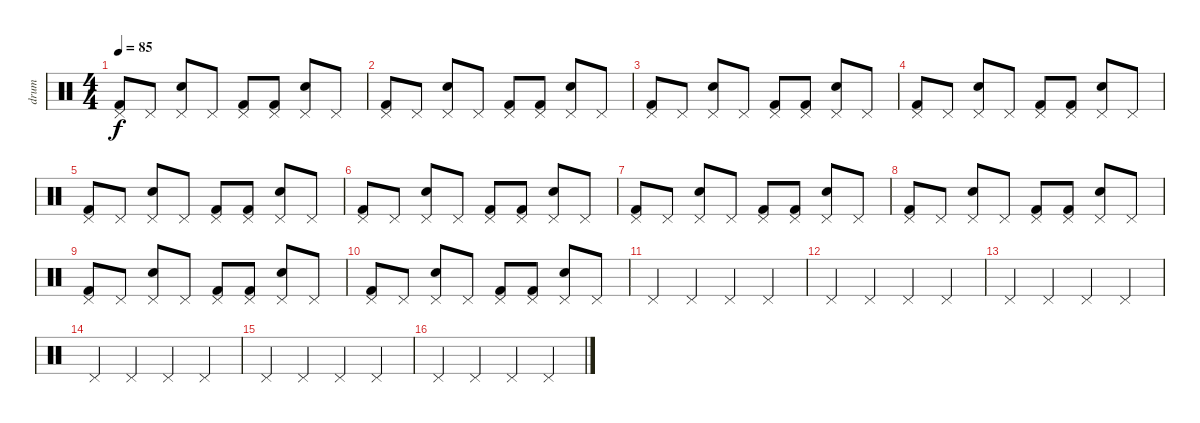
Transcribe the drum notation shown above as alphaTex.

\track ("drum" "drum") {instrument percussion}
\staff {score}
\articulation defaults
\ts (4 4)
\tempo 85
\clef neutral
\ks c
("Pedal Hi-Hat (hit)" "Kick (hit) 2").8{dy f} "Pedal Hi-Hat (hit)".8 ("Pedal Hi-Hat (hit)" "Snare (hit) 2").8 "Pedal Hi-Hat (hit)".8 ("Pedal Hi-Hat (hit)" "Kick (hit) 2").8 ("Pedal Hi-Hat (hit)" "Kick (hit) 2").8 ("Pedal Hi-Hat (hit)" "Snare (hit) 2").8 "Pedal Hi-Hat (hit)".8 |
("Pedal Hi-Hat (hit)" "Kick (hit) 2").8 "Pedal Hi-Hat (hit)".8 ("Pedal Hi-Hat (hit)" "Snare (hit) 2").8 "Pedal Hi-Hat (hit)".8 ("Pedal Hi-Hat (hit)" "Kick (hit) 2").8 ("Pedal Hi-Hat (hit)" "Kick (hit) 2").8 ("Pedal Hi-Hat (hit)" "Snare (hit) 2").8 "Pedal Hi-Hat (hit)".8 |
("Pedal Hi-Hat (hit)" "Kick (hit) 2").8 "Pedal Hi-Hat (hit)".8 ("Pedal Hi-Hat (hit)" "Snare (hit) 2").8 "Pedal Hi-Hat (hit)".8 ("Pedal Hi-Hat (hit)" "Kick (hit) 2").8 ("Pedal Hi-Hat (hit)" "Kick (hit) 2").8 ("Pedal Hi-Hat (hit)" "Snare (hit) 2").8 "Pedal Hi-Hat (hit)".8 |
("Pedal Hi-Hat (hit)" "Kick (hit) 2").8 "Pedal Hi-Hat (hit)".8 ("Pedal Hi-Hat (hit)" "Snare (hit) 2").8 "Pedal Hi-Hat (hit)".8 ("Pedal Hi-Hat (hit)" "Kick (hit) 2").8 ("Pedal Hi-Hat (hit)" "Kick (hit) 2").8 ("Pedal Hi-Hat (hit)" "Snare (hit) 2").8 "Pedal Hi-Hat (hit)".8 |
("Pedal Hi-Hat (hit)" "Kick (hit) 2").8 "Pedal Hi-Hat (hit)".8 ("Pedal Hi-Hat (hit)" "Snare (hit) 2").8 "Pedal Hi-Hat (hit)".8 ("Pedal Hi-Hat (hit)" "Kick (hit) 2").8 ("Pedal Hi-Hat (hit)" "Kick (hit) 2").8 ("Pedal Hi-Hat (hit)" "Snare (hit) 2").8 "Pedal Hi-Hat (hit)".8 |
("Pedal Hi-Hat (hit)" "Kick (hit) 2").8 "Pedal Hi-Hat (hit)".8 ("Pedal Hi-Hat (hit)" "Snare (hit) 2").8 "Pedal Hi-Hat (hit)".8 ("Pedal Hi-Hat (hit)" "Kick (hit) 2").8 ("Pedal Hi-Hat (hit)" "Kick (hit) 2").8 ("Pedal Hi-Hat (hit)" "Snare (hit) 2").8 "Pedal Hi-Hat (hit)".8 |
("Pedal Hi-Hat (hit)" "Kick (hit) 2").8 "Pedal Hi-Hat (hit)".8 ("Pedal Hi-Hat (hit)" "Snare (hit) 2").8 "Pedal Hi-Hat (hit)".8 ("Pedal Hi-Hat (hit)" "Kick (hit) 2").8 ("Pedal Hi-Hat (hit)" "Kick (hit) 2").8 ("Pedal Hi-Hat (hit)" "Snare (hit) 2").8 "Pedal Hi-Hat (hit)".8 |
("Pedal Hi-Hat (hit)" "Kick (hit) 2").8 "Pedal Hi-Hat (hit)".8 ("Pedal Hi-Hat (hit)" "Snare (hit) 2").8 "Pedal Hi-Hat (hit)".8 ("Pedal Hi-Hat (hit)" "Kick (hit) 2").8 ("Pedal Hi-Hat (hit)" "Kick (hit) 2").8 ("Pedal Hi-Hat (hit)" "Snare (hit) 2").8 "Pedal Hi-Hat (hit)".8 |
("Pedal Hi-Hat (hit)" "Kick (hit) 2").8 "Pedal Hi-Hat (hit)".8 ("Pedal Hi-Hat (hit)" "Snare (hit) 2").8 "Pedal Hi-Hat (hit)".8 ("Pedal Hi-Hat (hit)" "Kick (hit) 2").8 ("Pedal Hi-Hat (hit)" "Kick (hit) 2").8 ("Pedal Hi-Hat (hit)" "Snare (hit) 2").8 "Pedal Hi-Hat (hit)".8 |
("Pedal Hi-Hat (hit)" "Kick (hit) 2").8 "Pedal Hi-Hat (hit)".8 ("Pedal Hi-Hat (hit)" "Snare (hit) 2").8 "Pedal Hi-Hat (hit)".8 ("Pedal Hi-Hat (hit)" "Kick (hit) 2").8 ("Pedal Hi-Hat (hit)" "Kick (hit) 2").8 ("Pedal Hi-Hat (hit)" "Snare (hit) 2").8 "Pedal Hi-Hat (hit)".8 |
"Pedal Hi-Hat (hit)".4 "Pedal Hi-Hat (hit)".4 "Pedal Hi-Hat (hit)".4 "Pedal Hi-Hat (hit)".4 |
"Pedal Hi-Hat (hit)".4 "Pedal Hi-Hat (hit)".4 "Pedal Hi-Hat (hit)".4 "Pedal Hi-Hat (hit)".4 |
"Pedal Hi-Hat (hit)".4 "Pedal Hi-Hat (hit)".4 "Pedal Hi-Hat (hit)".4 "Pedal Hi-Hat (hit)".4 |
"Pedal Hi-Hat (hit)".4 "Pedal Hi-Hat (hit)".4 "Pedal Hi-Hat (hit)".4 "Pedal Hi-Hat (hit)".4 |
"Pedal Hi-Hat (hit)".4 "Pedal Hi-Hat (hit)".4 "Pedal Hi-Hat (hit)".4 "Pedal Hi-Hat (hit)".4 |
"Pedal Hi-Hat (hit)".4 "Pedal Hi-Hat (hit)".4 "Pedal Hi-Hat (hit)".4 "Pedal Hi-Hat (hit)".4
